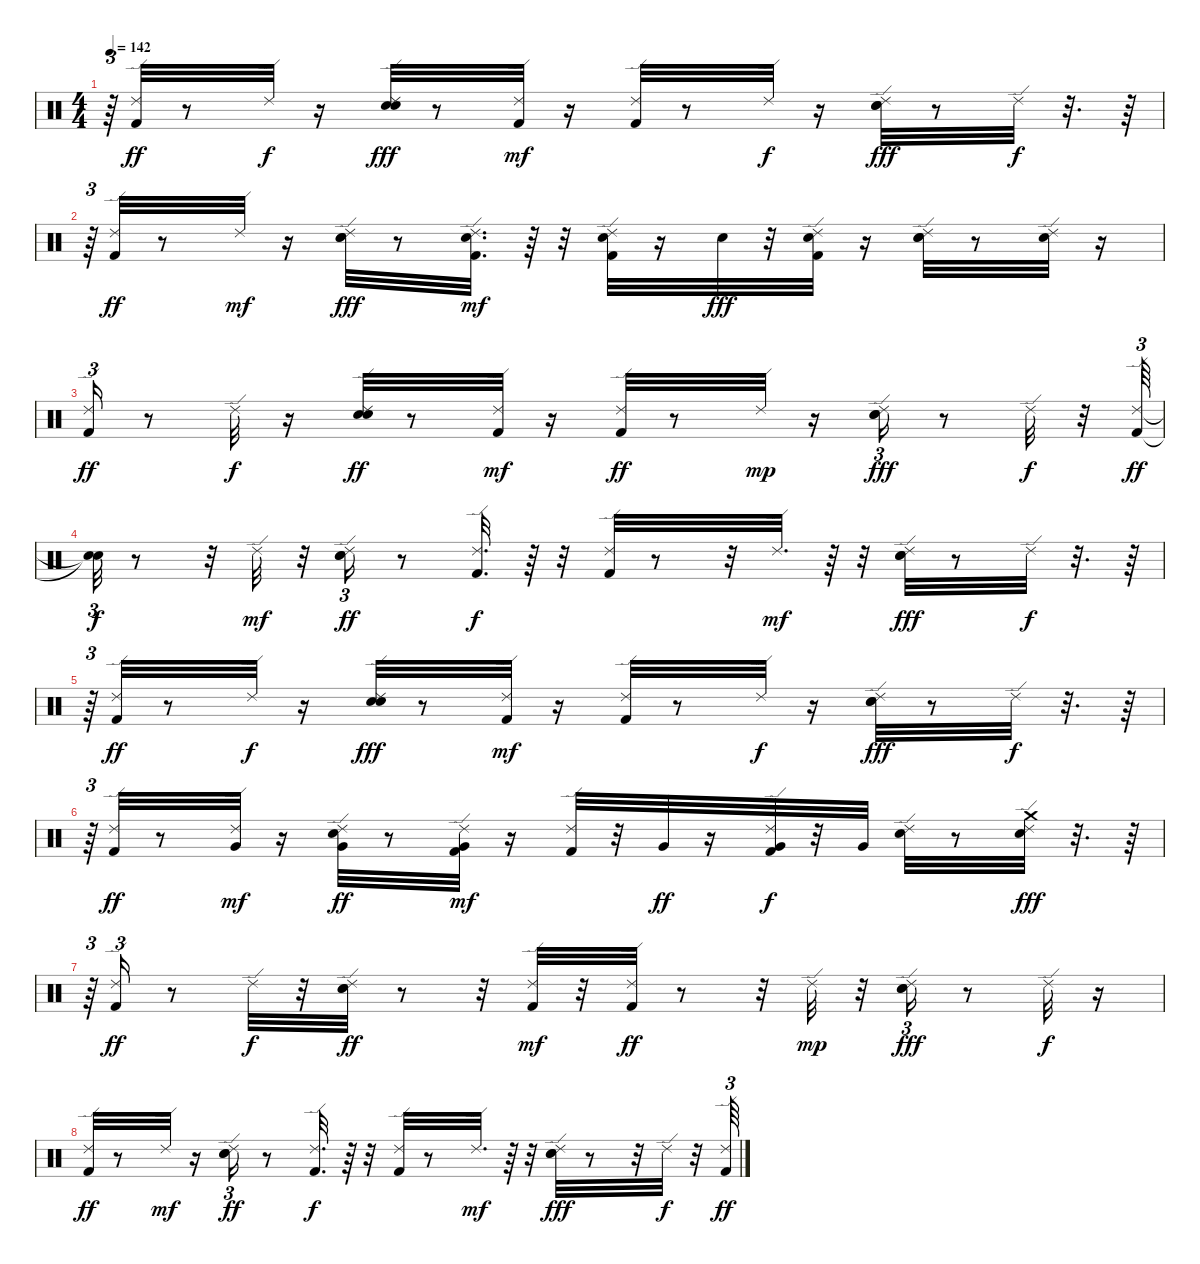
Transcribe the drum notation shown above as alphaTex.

\track "" {instrument percussion}
\staff {score}
\articulation defaults
\ts (4 4)
\tempo 142
\clef neutral
\ks c
r.64{tu (3 2) dy f} ("Ride (edge) 2" "Kick (hit) 2").32{dy ff} r.8 "Ride (edge) 2".32{dy f} r.16 ("Electric Snare (hit)" "Hand Clap (hit)" "Ride (edge) 2").32{dy fff} r.8 ("Kick (hit) 2" "Ride (edge) 2").32{dy mf} r.16 ("Kick (hit) 2" "Ride (edge) 2").32 r.8 "Ride (edge) 2".32{dy f} r.16 ("Electric Snare (hit)" "Hand Clap (hit)" "Ride (edge) 2").32{dy fff} r.8 "Ride (edge) 2".32{dy f} r.32{d} r.64 |
r.64{tu (3 2)} ("Kick (hit) 2" "Ride (edge) 2").32{dy ff} r.8 "Ride (edge) 2".32{dy mf} r.16 ("Hand Clap (hit)" "Electric Snare (hit)" "Ride (edge) 2").32{dy fff} r.8 ("Kick (hit) 2" "Electric Snare (hit)" "Ride (edge) 2").32{d dy mf} r.64 r.32 ("Kick (hit) 2" "Electric Snare (hit)" "Ride (edge) 2").32 r.16 "Electric Snare (hit)".32{dy fff} r.32 ("Electric Snare (hit)" "Ride (edge) 2" "Kick (hit) 2").32 r.16 ("Electric Snare (hit)" "Hand Clap (hit)" "Ride (edge) 2").32 r.8 ("Electric Snare (hit)" "Ride (edge) 2").32 r.16 |
("Ride (edge) 2" "Kick (hit) 2").16{tu (3 2) dy ff} r.8 "Ride (edge) 2".32{dy f} r.16 ("Hand Clap (hit)" "Electric Snare (hit)" "Ride (edge) 2").32{dy ff} r.8 ("Kick (hit) 2" "Ride (edge) 2").32{dy mf} r.16 ("Kick (hit) 2" "Ride (edge) 2").32{dy ff} r.8 "Ride (edge) 2".32{dy mp} r.16 ("Hand Clap (hit)" "Electric Snare (hit)" "Ride (edge) 2").16{tu (3 2) dy fff} r.8 "Ride (edge) 2".32{dy f} r.32 ("Kick (hit) 2" "Ride (edge) 2").64{tu (3 2) dy ff} |
("Snare (hit)"{t} "Snare (hit)"{t}).32{tu (3 2) dy f} r.8 r.32 "Ride (edge) 2".32{dy mf} r.32 ("Hand Clap (hit)" "Electric Snare (hit)" "Ride (edge) 2").16{tu (3 2) dy ff} r.8 ("Kick (hit) 2" "Ride (edge) 2").32{d dy f} r.64 r.32 ("Kick (hit) 2" "Ride (edge) 2").32 r.8 r.32 "Ride (edge) 2".32{d dy mf} r.64 r.32 ("Hand Clap (hit)" "Electric Snare (hit)" "Ride (edge) 2").32{dy fff} r.8 "Ride (edge) 2".32{dy f} r.32{d} r.64 |
r.64{tu (3 2)} ("Ride (edge) 2" "Kick (hit) 2").32{dy ff} r.8 "Ride (edge) 2".32{dy f} r.16 ("Electric Snare (hit)" "Hand Clap (hit)" "Ride (edge) 2").32{dy fff} r.8 ("Kick (hit) 2" "Ride (edge) 2").32{dy mf} r.16 ("Kick (hit) 2" "Ride (edge) 2").32 r.8 "Ride (edge) 2".32{dy f} r.16 ("Electric Snare (hit)" "Hand Clap (hit)" "Ride (edge) 2").32{dy fff} r.8 "Ride (edge) 2".32{dy f} r.32{d} r.64 |
r.64{tu (3 2)} ("Kick (hit) 2" "Ride (edge) 2").32{dy ff} r.8 ("Ride (edge) 2" "Very Low Tom (hit)").32{dy mf} r.16 ("Hand Clap (hit)" "Ride (edge) 2" "Very Low Tom (hit)").32{dy ff} r.8 ("Very Low Tom (hit)" "Kick (hit) 2" "Ride (edge) 2").32{dy mf} r.16 ("Kick (hit) 2" "Ride (edge) 2").32 r.32 "Very Low Tom (hit)".32{dy ff} r.16 ("Ride (edge) 2" "Very Low Tom (hit)" "Kick (hit) 2").32{dy f} r.32 "Very Low Tom (hit)".32 ("Hand Clap (hit)" "Ride (edge) 2").32 r.8 ("Crash medium (hit)" "Electric Snare (hit)" "Ride (edge) 2").32{dy fff} r.32{d} r.64 |
r.64{tu (3 2)} ("Ride (edge) 2" "Kick (hit) 2").16{tu (3 2) dy ff} r.8 "Ride (edge) 2".32{dy f} r.32 ("Hand Clap (hit)" "Electric Snare (hit)" "Ride (edge) 2").32{dy ff} r.8 r.32 ("Kick (hit) 2" "Ride (edge) 2").32{dy mf} r.32 ("Kick (hit) 2" "Ride (edge) 2").32{dy ff} r.8 r.32 "Ride (edge) 2".32{dy mp} r.32 ("Hand Clap (hit)" "Electric Snare (hit)" "Ride (edge) 2").16{tu (3 2) dy fff} r.8 "Ride (edge) 2".32{dy f} r.16 |
("Kick (hit) 2" "Ride (edge) 2").32{dy ff} r.8 "Ride (edge) 2".32{dy mf} r.16 ("Hand Clap (hit)" "Electric Snare (hit)" "Ride (edge) 2").16{tu (3 2) dy ff} r.8 ("Kick (hit) 2" "Ride (edge) 2").32{d dy f} r.64 r.32 ("Kick (hit) 2" "Ride (edge) 2").32 r.8 "Ride (edge) 2".32{d dy mf} r.64 r.32 ("Hand Clap (hit)" "Electric Snare (hit)" "Ride (edge) 2").32{dy fff} r.8 r.32 "Ride (edge) 2".32{dy f} r.32 ("Ride (edge) 2" "Kick (hit) 2").64{tu (3 2) dy ff}
